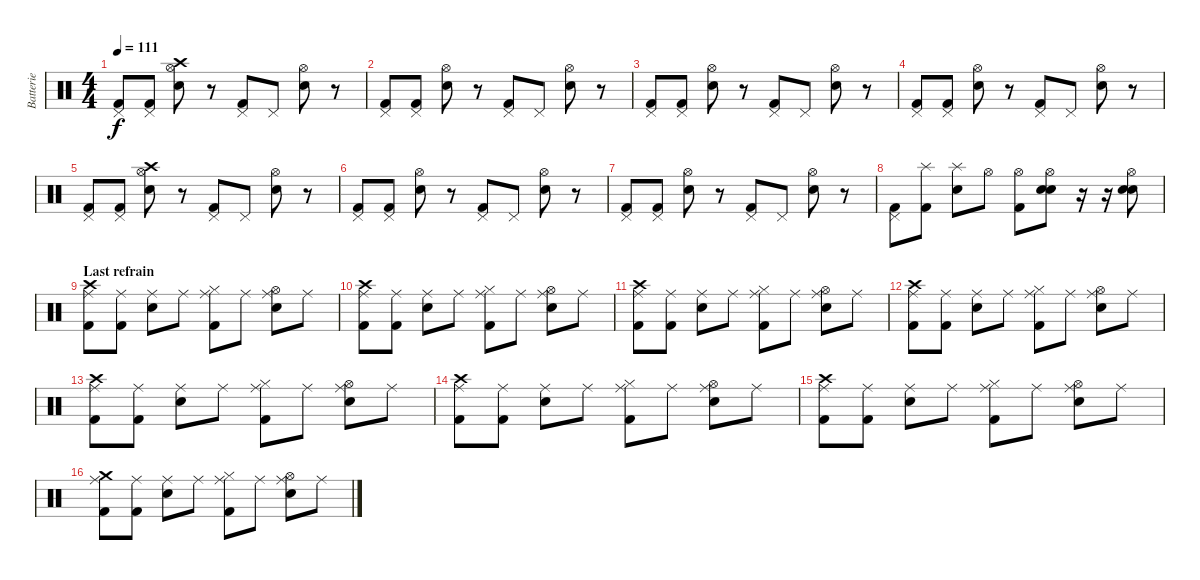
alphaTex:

\track ("Batterie" "Batterie") {instrument percussion}
\staff {score}
\articulation defaults
\ts (4 4)
\tempo 111
\clef neutral
\ks c
("Pedal Hi-Hat (hit)" "Kick (hit) 2").8{dy f} ("Pedal Hi-Hat (hit)" "Kick (hit) 2").8 ("Hi-Hat (open)" "Crash high (hit)" "Electric Snare (hit)").8 r.8 ("Pedal Hi-Hat (hit)" "Kick (hit) 2").8 "Pedal Hi-Hat (hit)".8 ("Hi-Hat (open)" "Electric Snare (hit)").8 r.8 |
("Pedal Hi-Hat (hit)" "Kick (hit) 2").8 ("Pedal Hi-Hat (hit)" "Kick (hit) 2").8 ("Hi-Hat (open)" "Electric Snare (hit)").8 r.8 ("Pedal Hi-Hat (hit)" "Kick (hit) 2").8 "Pedal Hi-Hat (hit)".8 ("Hi-Hat (open)" "Electric Snare (hit)").8 r.8 |
("Pedal Hi-Hat (hit)" "Kick (hit) 2").8 ("Pedal Hi-Hat (hit)" "Kick (hit) 2").8 ("Hi-Hat (open)" "Electric Snare (hit)").8 r.8 ("Pedal Hi-Hat (hit)" "Kick (hit) 2").8 "Pedal Hi-Hat (hit)".8 ("Hi-Hat (open)" "Electric Snare (hit)").8 r.8 |
("Pedal Hi-Hat (hit)" "Kick (hit) 2").8 ("Pedal Hi-Hat (hit)" "Kick (hit) 2").8 ("Hi-Hat (open)" "Electric Snare (hit)").8 r.8 ("Pedal Hi-Hat (hit)" "Kick (hit) 2").8 "Pedal Hi-Hat (hit)".8 ("Hi-Hat (open)" "Electric Snare (hit)").8 r.8 |
("Pedal Hi-Hat (hit)" "Kick (hit) 2").8 ("Pedal Hi-Hat (hit)" "Kick (hit) 2").8 ("Hi-Hat (open)" "Crash high (hit)" "Electric Snare (hit)").8 r.8 ("Pedal Hi-Hat (hit)" "Kick (hit) 2").8 "Pedal Hi-Hat (hit)".8 ("Hi-Hat (open)" "Electric Snare (hit)").8 r.8 |
("Pedal Hi-Hat (hit)" "Kick (hit) 2").8 ("Pedal Hi-Hat (hit)" "Kick (hit) 2").8 ("Hi-Hat (open)" "Electric Snare (hit)").8 r.8 ("Pedal Hi-Hat (hit)" "Kick (hit) 2").8 "Pedal Hi-Hat (hit)".8 ("Hi-Hat (open)" "Electric Snare (hit)").8 r.8 |
("Pedal Hi-Hat (hit)" "Kick (hit) 2").8 ("Pedal Hi-Hat (hit)" "Kick (hit) 2").8 ("Hi-Hat (open)" "Electric Snare (hit)").8 r.8 ("Pedal Hi-Hat (hit)" "Kick (hit) 2").8 "Pedal Hi-Hat (hit)".8 ("Hi-Hat (open)" "Electric Snare (hit)").8 r.8 |
("Pedal Hi-Hat (hit)" "Kick (hit) 2").8 ("Splash (hit)" "Kick (hit) 2").8 ("Splash (hit)" "Electric Snare (hit)").8 "Hi-Hat (open)".8 ("Hi-Hat (open)" "Kick (hit) 2").8 ("Hi-Hat (open)" "Electric Snare (hit)" "Electric Snare (hit)").8 r.16 r.16 ("Hi-Hat (open)" "Electric Snare (hit)" "Electric Snare (hit)").8 |
\section ("" "Last refrain ")
("Ride (middle)" "Crash high (hit)" "Kick (hit) 2").8 ("Ride (middle)" "Kick (hit) 2").8 ("Ride (middle)" "Electric Snare (hit)").8 "Ride (middle)".8 ("Ride (middle)" "Hi-Hat (closed)" "Kick (hit) 2").8 "Ride (middle)".8 ("Ride (middle)" "Hi-Hat (open)" "Electric Snare (hit)").8 "Ride (middle)".8 |
("Ride (middle)" "Crash high (hit)" "Kick (hit) 2").8 ("Ride (middle)" "Kick (hit) 2").8 ("Ride (middle)" "Electric Snare (hit)").8 "Ride (middle)".8 ("Ride (middle)" "Hi-Hat (closed)" "Kick (hit) 2").8 "Ride (middle)".8 ("Ride (middle)" "Hi-Hat (open)" "Electric Snare (hit)").8 "Ride (middle)".8 |
("Ride (middle)" "Crash high (hit)" "Kick (hit) 2").8 ("Ride (middle)" "Kick (hit) 2").8 ("Ride (middle)" "Electric Snare (hit)").8 "Ride (middle)".8 ("Ride (middle)" "Hi-Hat (closed)" "Kick (hit) 2").8 "Ride (middle)".8 ("Ride (middle)" "Hi-Hat (open)" "Electric Snare (hit)").8 "Ride (middle)".8 |
("Ride (middle)" "Crash high (hit)" "Kick (hit) 2").8 ("Ride (middle)" "Kick (hit) 2").8 ("Ride (middle)" "Electric Snare (hit)").8 "Ride (middle)".8 ("Ride (middle)" "Hi-Hat (closed)" "Kick (hit) 2").8 "Ride (middle)".8 ("Ride (middle)" "Hi-Hat (open)" "Electric Snare (hit)").8 "Ride (middle)".8 |
("Ride (middle)" "Crash high (hit)" "Kick (hit) 2").8 ("Ride (middle)" "Kick (hit) 2").8 ("Ride (middle)" "Electric Snare (hit)").8 "Ride (middle)".8 ("Ride (middle)" "Hi-Hat (closed)" "Kick (hit) 2").8 "Ride (middle)".8 ("Ride (middle)" "Hi-Hat (open)" "Electric Snare (hit)").8 "Ride (middle)".8 |
("Ride (middle)" "Crash high (hit)" "Kick (hit) 2").8 ("Ride (middle)" "Kick (hit) 2").8 ("Ride (middle)" "Electric Snare (hit)").8 "Ride (middle)".8 ("Ride (middle)" "Hi-Hat (closed)" "Kick (hit) 2").8 "Ride (middle)".8 ("Ride (middle)" "Hi-Hat (open)" "Electric Snare (hit)").8 "Ride (middle)".8 |
("Ride (middle)" "Crash high (hit)" "Kick (hit) 2").8 ("Ride (middle)" "Kick (hit) 2").8 ("Ride (middle)" "Electric Snare (hit)").8 "Ride (middle)".8 ("Ride (middle)" "Hi-Hat (closed)" "Kick (hit) 2").8 "Ride (middle)".8 ("Ride (middle)" "Hi-Hat (open)" "Electric Snare (hit)").8 "Ride (middle)".8 |
("Ride (middle)" "Crash medium (hit)" "Kick (hit) 2").8 ("Ride (middle)" "Kick (hit) 2").8 ("Ride (middle)" "Electric Snare (hit)").8 "Ride (middle)".8 ("Ride (middle)" "Hi-Hat (closed)" "Kick (hit) 2").8 "Ride (middle)".8 ("Ride (middle)" "Hi-Hat (open)" "Electric Snare (hit)").8 "Ride (middle)".8
